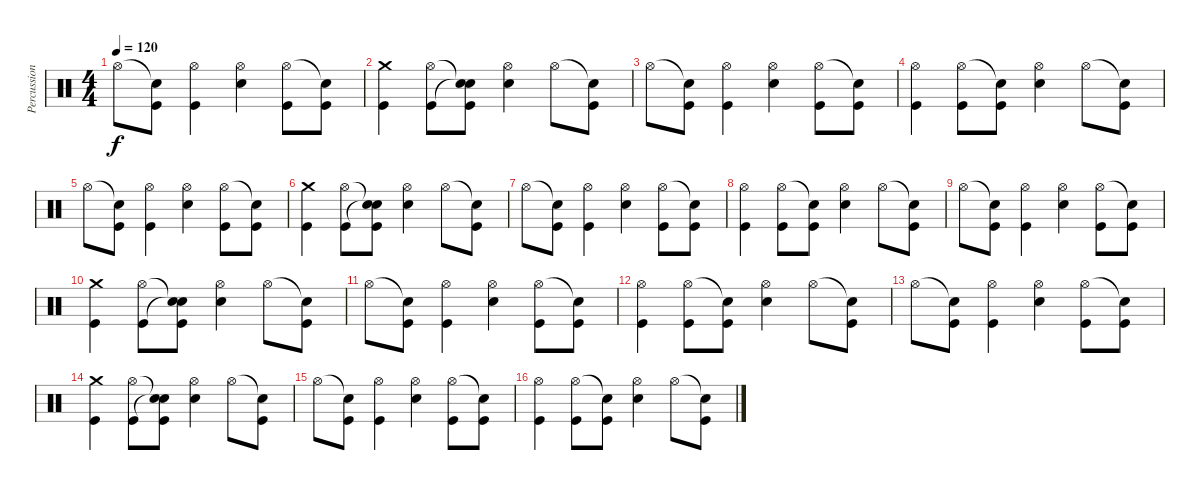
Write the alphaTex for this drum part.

\track ("Percussion" "Percussion") {instrument percussion}
\staff {score}
\articulation defaults
\ts (4 4)
\tempo 120
\clef neutral
\ks c "Hi-Hat (open)".8{dy f}
("Snare (hit)"{t} "Kick (hit)").8 ("Hi-Hat (open)" "Kick (hit)").4 ("Hi-Hat (open)" "Electric Snare (hit)").4 ("Hi-Hat (open)" "Kick (hit)").8 ("Snare (hit)"{t} "Kick (hit)").8 |
("Crash medium (hit)" "Kick (hit)").4 ("Hi-Hat (open)" "Kick (hit)").8 ("Snare (hit)"{t} "Snare (hit)"{t} "Kick (hit)").8 ("Hi-Hat (open)" "Electric Snare (hit)").4 "Hi-Hat (open)".8 ("Snare (hit)"{t} "Kick (hit)").8 |
"Hi-Hat (open)".8 ("Snare (hit)"{t} "Kick (hit)").8 ("Hi-Hat (open)" "Kick (hit)").4 ("Hi-Hat (open)" "Electric Snare (hit)").4 ("Hi-Hat (open)" "Kick (hit)").8 ("Snare (hit)"{t} "Kick (hit)").8 |
("Hi-Hat (open)" "Kick (hit)").4 ("Hi-Hat (open)" "Kick (hit)").8 ("Snare (hit)"{t} "Kick (hit)").8 ("Hi-Hat (open)" "Electric Snare (hit)").4 "Hi-Hat (open)".8 ("Snare (hit)"{t} "Kick (hit)").8 |
"Hi-Hat (open)".8 ("Snare (hit)"{t} "Kick (hit)").8 ("Hi-Hat (open)" "Kick (hit)").4 ("Hi-Hat (open)" "Electric Snare (hit)").4 ("Hi-Hat (open)" "Kick (hit)").8 ("Snare (hit)"{t} "Kick (hit)").8 |
("Crash medium (hit)" "Kick (hit)").4 ("Hi-Hat (open)" "Kick (hit)").8 ("Snare (hit)"{t} "Snare (hit)"{t} "Kick (hit)").8 ("Hi-Hat (open)" "Electric Snare (hit)").4 "Hi-Hat (open)".8 ("Snare (hit)"{t} "Kick (hit)").8 |
"Hi-Hat (open)".8 ("Snare (hit)"{t} "Kick (hit)").8 ("Hi-Hat (open)" "Kick (hit)").4 ("Hi-Hat (open)" "Electric Snare (hit)").4 ("Hi-Hat (open)" "Kick (hit)").8 ("Snare (hit)"{t} "Kick (hit)").8 |
("Hi-Hat (open)" "Kick (hit)").4 ("Hi-Hat (open)" "Kick (hit)").8 ("Snare (hit)"{t} "Kick (hit)").8 ("Hi-Hat (open)" "Electric Snare (hit)").4 "Hi-Hat (open)".8 ("Snare (hit)"{t} "Kick (hit)").8 |
"Hi-Hat (open)".8 ("Snare (hit)"{t} "Kick (hit)").8 ("Hi-Hat (open)" "Kick (hit)").4 ("Hi-Hat (open)" "Electric Snare (hit)").4 ("Hi-Hat (open)" "Kick (hit)").8 ("Snare (hit)"{t} "Kick (hit)").8 |
("Crash medium (hit)" "Kick (hit)").4 ("Hi-Hat (open)" "Kick (hit)").8 ("Snare (hit)"{t} "Snare (hit)"{t} "Kick (hit)").8 ("Hi-Hat (open)" "Electric Snare (hit)").4 "Hi-Hat (open)".8 ("Snare (hit)"{t} "Kick (hit)").8 |
"Hi-Hat (open)".8 ("Snare (hit)"{t} "Kick (hit)").8 ("Hi-Hat (open)" "Kick (hit)").4 ("Hi-Hat (open)" "Electric Snare (hit)").4 ("Hi-Hat (open)" "Kick (hit)").8 ("Snare (hit)"{t} "Kick (hit)").8 |
("Hi-Hat (open)" "Kick (hit)").4 ("Hi-Hat (open)" "Kick (hit)").8 ("Snare (hit)"{t} "Kick (hit)").8 ("Hi-Hat (open)" "Electric Snare (hit)").4 "Hi-Hat (open)".8 ("Snare (hit)"{t} "Kick (hit)").8 |
"Hi-Hat (open)".8 ("Snare (hit)"{t} "Kick (hit)").8 ("Hi-Hat (open)" "Kick (hit)").4 ("Hi-Hat (open)" "Electric Snare (hit)").4 ("Hi-Hat (open)" "Kick (hit)").8 ("Snare (hit)"{t} "Kick (hit)").8 |
("Crash medium (hit)" "Kick (hit)").4 ("Hi-Hat (open)" "Kick (hit)").8 ("Snare (hit)"{t} "Snare (hit)"{t} "Kick (hit)").8 ("Hi-Hat (open)" "Electric Snare (hit)").4 "Hi-Hat (open)".8 ("Snare (hit)"{t} "Kick (hit)").8 |
"Hi-Hat (open)".8 ("Snare (hit)"{t} "Kick (hit)").8 ("Hi-Hat (open)" "Kick (hit)").4 ("Hi-Hat (open)" "Electric Snare (hit)").4 ("Hi-Hat (open)" "Kick (hit)").8 ("Snare (hit)"{t} "Kick (hit)").8 |
("Hi-Hat (open)" "Kick (hit)").4 ("Hi-Hat (open)" "Kick (hit)").8 ("Snare (hit)"{t} "Kick (hit)").8 ("Hi-Hat (open)" "Electric Snare (hit)").4 "Hi-Hat (open)".8 ("Snare (hit)"{t} "Kick (hit)").8
